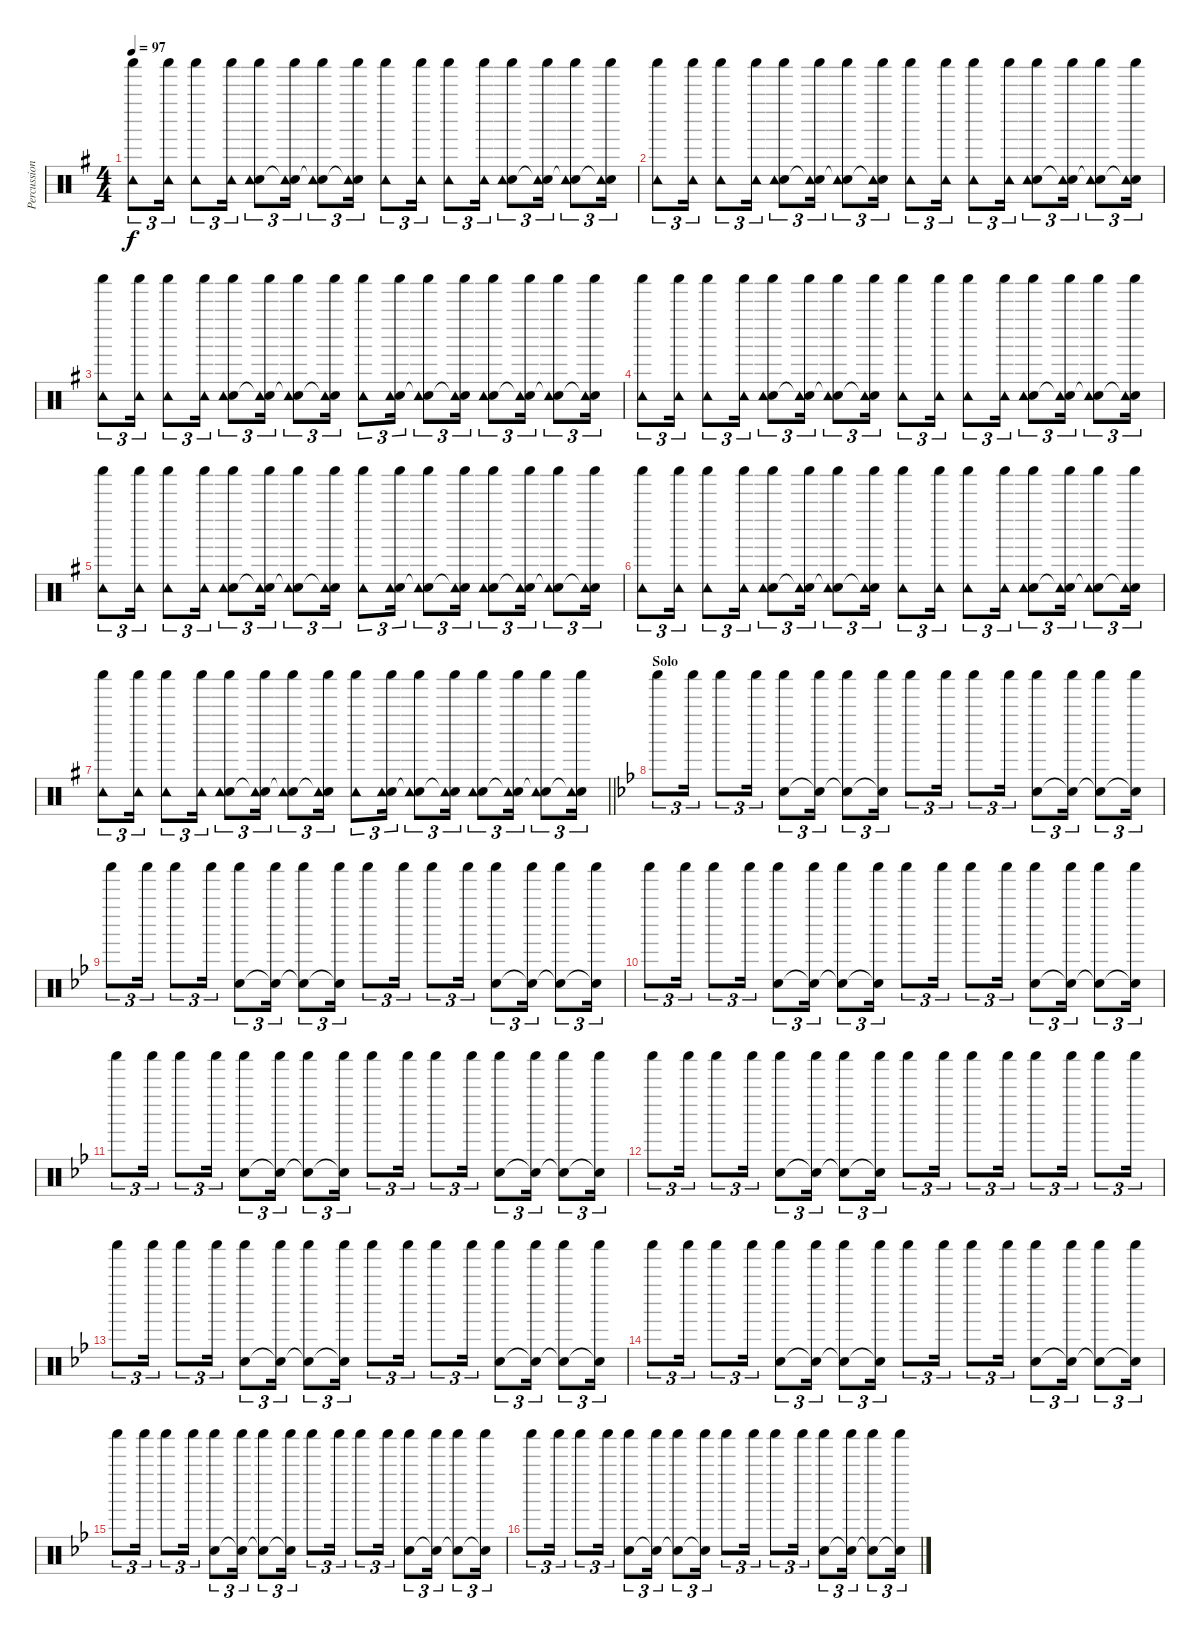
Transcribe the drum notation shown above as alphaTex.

\track ("Percussion" "Percussion") {instrument percussion}
\staff {score}
\articulation defaults
\ts (4 4)
\tempo 97
\clef neutral
\ks g
("Shaker (hit)" "Tambourine (hit)").8{tu (3 2) dy f} ("Shaker (hit)" "Tambourine (hit)").16{tu (3 2)} ("Shaker (hit)" "Tambourine (hit)").8{tu (3 2)} ("Shaker (hit)" "Tambourine (hit)").16{tu (3 2)} ("Hand Clap (hit)" "Shaker (hit)" "Tambourine (hit)").8{tu (3 2)} ("Snare (hit)"{t} "Shaker (hit)" "Tambourine (hit)").16{tu (3 2)} ("Snare (hit)"{t} "Shaker (hit)" "Tambourine (hit)").8{tu (3 2)} ("Snare (hit)"{t} "Shaker (hit)" "Tambourine (hit)").16{tu (3 2)} ("Shaker (hit)" "Tambourine (hit)").8{tu (3 2)} ("Shaker (hit)" "Tambourine (hit)").16{tu (3 2)} ("Shaker (hit)" "Tambourine (hit)").8{tu (3 2)} ("Shaker (hit)" "Tambourine (hit)").16{tu (3 2)} ("Hand Clap (hit)" "Shaker (hit)" "Tambourine (hit)").8{tu (3 2)} ("Snare (hit)"{t} "Shaker (hit)" "Tambourine (hit)").16{tu (3 2)} ("Snare (hit)"{t} "Shaker (hit)" "Tambourine (hit)").8{tu (3 2)} ("Snare (hit)"{t} "Shaker (hit)" "Tambourine (hit)").16{tu (3 2)} |
("Shaker (hit)" "Tambourine (hit)").8{tu (3 2)} ("Shaker (hit)" "Tambourine (hit)").16{tu (3 2)} ("Shaker (hit)" "Tambourine (hit)").8{tu (3 2)} ("Shaker (hit)" "Tambourine (hit)").16{tu (3 2)} ("Hand Clap (hit)" "Shaker (hit)" "Tambourine (hit)").8{tu (3 2)} ("Snare (hit)"{t} "Shaker (hit)" "Tambourine (hit)").16{tu (3 2)} ("Snare (hit)"{t} "Shaker (hit)" "Tambourine (hit)").8{tu (3 2)} ("Snare (hit)"{t} "Shaker (hit)" "Tambourine (hit)").16{tu (3 2)} ("Shaker (hit)" "Tambourine (hit)").8{tu (3 2)} ("Shaker (hit)" "Tambourine (hit)").16{tu (3 2)} ("Shaker (hit)" "Tambourine (hit)").8{tu (3 2)} ("Shaker (hit)" "Tambourine (hit)").16{tu (3 2)} ("Hand Clap (hit)" "Shaker (hit)" "Tambourine (hit)").8{tu (3 2)} ("Snare (hit)"{t} "Shaker (hit)" "Tambourine (hit)").16{tu (3 2)} ("Snare (hit)"{t} "Shaker (hit)" "Tambourine (hit)").8{tu (3 2)} ("Snare (hit)"{t} "Shaker (hit)" "Tambourine (hit)").16{tu (3 2)} |
("Shaker (hit)" "Tambourine (hit)").8{tu (3 2)} ("Shaker (hit)" "Tambourine (hit)").16{tu (3 2)} ("Shaker (hit)" "Tambourine (hit)").8{tu (3 2)} ("Shaker (hit)" "Tambourine (hit)").16{tu (3 2)} ("Hand Clap (hit)" "Shaker (hit)" "Tambourine (hit)").8{tu (3 2)} ("Snare (hit)"{t} "Shaker (hit)" "Tambourine (hit)").16{tu (3 2)} ("Snare (hit)"{t} "Shaker (hit)" "Tambourine (hit)").8{tu (3 2)} ("Snare (hit)"{t} "Shaker (hit)" "Tambourine (hit)").16{tu (3 2)} ("Shaker (hit)" "Tambourine (hit)").8{tu (3 2)} ("Hand Clap (hit)" "Shaker (hit)" "Tambourine (hit)").16{tu (3 2)} ("Snare (hit)"{t} "Shaker (hit)" "Tambourine (hit)").8{tu (3 2)} ("Snare (hit)"{t} "Shaker (hit)" "Tambourine (hit)").16{tu (3 2)} ("Hand Clap (hit)" "Shaker (hit)" "Tambourine (hit)").8{tu (3 2)} ("Snare (hit)"{t} "Shaker (hit)" "Tambourine (hit)").16{tu (3 2)} ("Snare (hit)"{t} "Shaker (hit)" "Tambourine (hit)").8{tu (3 2)} ("Snare (hit)"{t} "Shaker (hit)" "Tambourine (hit)").16{tu (3 2)} |
("Shaker (hit)" "Tambourine (hit)").8{tu (3 2)} ("Shaker (hit)" "Tambourine (hit)").16{tu (3 2)} ("Shaker (hit)" "Tambourine (hit)").8{tu (3 2)} ("Shaker (hit)" "Tambourine (hit)").16{tu (3 2)} ("Hand Clap (hit)" "Shaker (hit)" "Tambourine (hit)").8{tu (3 2)} ("Snare (hit)"{t} "Shaker (hit)" "Tambourine (hit)").16{tu (3 2)} ("Snare (hit)"{t} "Shaker (hit)" "Tambourine (hit)").8{tu (3 2)} ("Snare (hit)"{t} "Shaker (hit)" "Tambourine (hit)").16{tu (3 2)} ("Shaker (hit)" "Tambourine (hit)").8{tu (3 2)} ("Shaker (hit)" "Tambourine (hit)").16{tu (3 2)} ("Shaker (hit)" "Tambourine (hit)").8{tu (3 2)} ("Shaker (hit)" "Tambourine (hit)").16{tu (3 2)} ("Hand Clap (hit)" "Shaker (hit)" "Tambourine (hit)").8{tu (3 2)} ("Snare (hit)"{t} "Shaker (hit)" "Tambourine (hit)").16{tu (3 2)} ("Snare (hit)"{t} "Shaker (hit)" "Tambourine (hit)").8{tu (3 2)} ("Snare (hit)"{t} "Shaker (hit)" "Tambourine (hit)").16{tu (3 2)} |
("Shaker (hit)" "Tambourine (hit)").8{tu (3 2)} ("Shaker (hit)" "Tambourine (hit)").16{tu (3 2)} ("Shaker (hit)" "Tambourine (hit)").8{tu (3 2)} ("Shaker (hit)" "Tambourine (hit)").16{tu (3 2)} ("Hand Clap (hit)" "Shaker (hit)" "Tambourine (hit)").8{tu (3 2)} ("Snare (hit)"{t} "Shaker (hit)" "Tambourine (hit)").16{tu (3 2)} ("Snare (hit)"{t} "Shaker (hit)" "Tambourine (hit)").8{tu (3 2)} ("Snare (hit)"{t} "Shaker (hit)" "Tambourine (hit)").16{tu (3 2)} ("Shaker (hit)" "Tambourine (hit)").8{tu (3 2)} ("Hand Clap (hit)" "Shaker (hit)" "Tambourine (hit)").16{tu (3 2)} ("Snare (hit)"{t} "Shaker (hit)" "Tambourine (hit)").8{tu (3 2)} ("Snare (hit)"{t} "Shaker (hit)" "Tambourine (hit)").16{tu (3 2)} ("Hand Clap (hit)" "Shaker (hit)" "Tambourine (hit)").8{tu (3 2)} ("Snare (hit)"{t} "Shaker (hit)" "Tambourine (hit)").16{tu (3 2)} ("Snare (hit)"{t} "Shaker (hit)" "Tambourine (hit)").8{tu (3 2)} ("Snare (hit)"{t} "Shaker (hit)" "Tambourine (hit)").16{tu (3 2)} |
("Shaker (hit)" "Tambourine (hit)").8{tu (3 2)} ("Shaker (hit)" "Tambourine (hit)").16{tu (3 2)} ("Shaker (hit)" "Tambourine (hit)").8{tu (3 2)} ("Shaker (hit)" "Tambourine (hit)").16{tu (3 2)} ("Hand Clap (hit)" "Shaker (hit)" "Tambourine (hit)").8{tu (3 2)} ("Snare (hit)"{t} "Shaker (hit)" "Tambourine (hit)").16{tu (3 2)} ("Snare (hit)"{t} "Shaker (hit)" "Tambourine (hit)").8{tu (3 2)} ("Snare (hit)"{t} "Shaker (hit)" "Tambourine (hit)").16{tu (3 2)} ("Shaker (hit)" "Tambourine (hit)").8{tu (3 2)} ("Shaker (hit)" "Tambourine (hit)").16{tu (3 2)} ("Shaker (hit)" "Tambourine (hit)").8{tu (3 2)} ("Shaker (hit)" "Tambourine (hit)").16{tu (3 2)} ("Hand Clap (hit)" "Shaker (hit)" "Tambourine (hit)").8{tu (3 2)} ("Snare (hit)"{t} "Shaker (hit)" "Tambourine (hit)").16{tu (3 2)} ("Snare (hit)"{t} "Shaker (hit)" "Tambourine (hit)").8{tu (3 2)} ("Snare (hit)"{t} "Shaker (hit)" "Tambourine (hit)").16{tu (3 2)} |
\barLineRight lightlight
("Shaker (hit)" "Tambourine (hit)").8{tu (3 2)} ("Shaker (hit)" "Tambourine (hit)").16{tu (3 2)} ("Shaker (hit)" "Tambourine (hit)").8{tu (3 2)} ("Shaker (hit)" "Tambourine (hit)").16{tu (3 2)} ("Hand Clap (hit)" "Shaker (hit)" "Tambourine (hit)").8{tu (3 2)} ("Snare (hit)"{t} "Shaker (hit)" "Tambourine (hit)").16{tu (3 2)} ("Snare (hit)"{t} "Shaker (hit)" "Tambourine (hit)").8{tu (3 2)} ("Snare (hit)"{t} "Shaker (hit)" "Tambourine (hit)").16{tu (3 2)} ("Shaker (hit)" "Tambourine (hit)").8{tu (3 2)} ("Hand Clap (hit)" "Shaker (hit)" "Tambourine (hit)").16{tu (3 2)} ("Snare (hit)"{t} "Shaker (hit)" "Tambourine (hit)").8{tu (3 2)} ("Snare (hit)"{t} "Shaker (hit)" "Tambourine (hit)").16{tu (3 2)} ("Hand Clap (hit)" "Shaker (hit)" "Tambourine (hit)").8{tu (3 2)} ("Snare (hit)"{t} "Shaker (hit)" "Tambourine (hit)").16{tu (3 2)} ("Snare (hit)"{t} "Shaker (hit)" "Tambourine (hit)").8{tu (3 2)} ("Snare (hit)"{t} "Shaker (hit)" "Tambourine (hit)").16{tu (3 2)} |
\section ("" "Solo")
\ks bb "Shaker (hit)".8{tu (3 2)} "Shaker (hit)".16{tu (3 2)} "Shaker (hit)".8{tu (3 2)} "Shaker (hit)".16{tu (3 2)}
("Hand Clap (hit)" "Shaker (hit)").8{tu (3 2)} ("Snare (hit)"{t} "Shaker (hit)").16{tu (3 2)} ("Snare (hit)"{t} "Shaker (hit)").8{tu (3 2)} ("Snare (hit)"{t} "Shaker (hit)").16{tu (3 2)} "Shaker (hit)".8{tu (3 2)} "Shaker (hit)".16{tu (3 2)} "Shaker (hit)".8{tu (3 2)} "Shaker (hit)".16{tu (3 2)} ("Hand Clap (hit)" "Shaker (hit)").8{tu (3 2)} ("Snare (hit)"{t} "Shaker (hit)").16{tu (3 2)} ("Snare (hit)"{t} "Shaker (hit)").8{tu (3 2)} ("Snare (hit)"{t} "Shaker (hit)").16{tu (3 2)} |
"Shaker (hit)".8{tu (3 2)} "Shaker (hit)".16{tu (3 2)} "Shaker (hit)".8{tu (3 2)} "Shaker (hit)".16{tu (3 2)} ("Hand Clap (hit)" "Shaker (hit)").8{tu (3 2)} ("Snare (hit)"{t} "Shaker (hit)").16{tu (3 2)} ("Snare (hit)"{t} "Shaker (hit)").8{tu (3 2)} ("Snare (hit)"{t} "Shaker (hit)").16{tu (3 2)} "Shaker (hit)".8{tu (3 2)} "Shaker (hit)".16{tu (3 2)} "Shaker (hit)".8{tu (3 2)} "Shaker (hit)".16{tu (3 2)} ("Hand Clap (hit)" "Shaker (hit)").8{tu (3 2)} ("Snare (hit)"{t} "Shaker (hit)").16{tu (3 2)} ("Snare (hit)"{t} "Shaker (hit)").8{tu (3 2)} ("Snare (hit)"{t} "Shaker (hit)").16{tu (3 2)} |
"Shaker (hit)".8{tu (3 2)} "Shaker (hit)".16{tu (3 2)} "Shaker (hit)".8{tu (3 2)} "Shaker (hit)".16{tu (3 2)} ("Hand Clap (hit)" "Shaker (hit)").8{tu (3 2)} ("Snare (hit)"{t} "Shaker (hit)").16{tu (3 2)} ("Snare (hit)"{t} "Shaker (hit)").8{tu (3 2)} ("Snare (hit)"{t} "Shaker (hit)").16{tu (3 2)} "Shaker (hit)".8{tu (3 2)} "Shaker (hit)".16{tu (3 2)} "Shaker (hit)".8{tu (3 2)} "Shaker (hit)".16{tu (3 2)} ("Hand Clap (hit)" "Shaker (hit)").8{tu (3 2)} ("Snare (hit)"{t} "Shaker (hit)").16{tu (3 2)} ("Snare (hit)"{t} "Shaker (hit)").8{tu (3 2)} ("Snare (hit)"{t} "Shaker (hit)").16{tu (3 2)} |
"Shaker (hit)".8{tu (3 2)} "Shaker (hit)".16{tu (3 2)} "Shaker (hit)".8{tu (3 2)} "Shaker (hit)".16{tu (3 2)} ("Hand Clap (hit)" "Shaker (hit)").8{tu (3 2)} ("Snare (hit)"{t} "Shaker (hit)").16{tu (3 2)} ("Snare (hit)"{t} "Shaker (hit)").8{tu (3 2)} ("Snare (hit)"{t} "Shaker (hit)").16{tu (3 2)} "Shaker (hit)".8{tu (3 2)} "Shaker (hit)".16{tu (3 2)} "Shaker (hit)".8{tu (3 2)} "Shaker (hit)".16{tu (3 2)} ("Hand Clap (hit)" "Shaker (hit)").8{tu (3 2)} ("Snare (hit)"{t} "Shaker (hit)").16{tu (3 2)} ("Snare (hit)"{t} "Shaker (hit)").8{tu (3 2)} ("Snare (hit)"{t} "Shaker (hit)").16{tu (3 2)} |
"Shaker (hit)".8{tu (3 2)} "Shaker (hit)".16{tu (3 2)} "Shaker (hit)".8{tu (3 2)} "Shaker (hit)".16{tu (3 2)} ("Hand Clap (hit)" "Shaker (hit)").8{tu (3 2)} ("Snare (hit)"{t} "Shaker (hit)").16{tu (3 2)} ("Snare (hit)"{t} "Shaker (hit)").8{tu (3 2)} ("Snare (hit)"{t} "Shaker (hit)").16{tu (3 2)} "Shaker (hit)".8{tu (3 2)} "Shaker (hit)".16{tu (3 2)} "Shaker (hit)".8{tu (3 2)} "Shaker (hit)".16{tu (3 2)} "Shaker (hit)".8{tu (3 2)} "Shaker (hit)".16{tu (3 2)} "Shaker (hit)".8{tu (3 2)} "Shaker (hit)".16{tu (3 2)} |
"Shaker (hit)".8{tu (3 2)} "Shaker (hit)".16{tu (3 2)} "Shaker (hit)".8{tu (3 2)} "Shaker (hit)".16{tu (3 2)} ("Hand Clap (hit)" "Shaker (hit)").8{tu (3 2)} ("Snare (hit)"{t} "Shaker (hit)").16{tu (3 2)} ("Snare (hit)"{t} "Shaker (hit)").8{tu (3 2)} ("Snare (hit)"{t} "Shaker (hit)").16{tu (3 2)} "Shaker (hit)".8{tu (3 2)} "Shaker (hit)".16{tu (3 2)} "Shaker (hit)".8{tu (3 2)} "Shaker (hit)".16{tu (3 2)} ("Hand Clap (hit)" "Shaker (hit)").8{tu (3 2)} ("Snare (hit)"{t} "Shaker (hit)").16{tu (3 2)} ("Snare (hit)"{t} "Shaker (hit)").8{tu (3 2)} ("Snare (hit)"{t} "Shaker (hit)").16{tu (3 2)} |
"Shaker (hit)".8{tu (3 2)} "Shaker (hit)".16{tu (3 2)} "Shaker (hit)".8{tu (3 2)} "Shaker (hit)".16{tu (3 2)} ("Hand Clap (hit)" "Shaker (hit)").8{tu (3 2)} ("Snare (hit)"{t} "Shaker (hit)").16{tu (3 2)} ("Snare (hit)"{t} "Shaker (hit)").8{tu (3 2)} ("Snare (hit)"{t} "Shaker (hit)").16{tu (3 2)} "Shaker (hit)".8{tu (3 2)} "Shaker (hit)".16{tu (3 2)} "Shaker (hit)".8{tu (3 2)} "Shaker (hit)".16{tu (3 2)} ("Hand Clap (hit)" "Shaker (hit)").8{tu (3 2)} ("Snare (hit)"{t} "Shaker (hit)").16{tu (3 2)} ("Snare (hit)"{t} "Shaker (hit)").8{tu (3 2)} ("Snare (hit)"{t} "Shaker (hit)").16{tu (3 2)} |
"Shaker (hit)".8{tu (3 2)} "Shaker (hit)".16{tu (3 2)} "Shaker (hit)".8{tu (3 2)} "Shaker (hit)".16{tu (3 2)} ("Hand Clap (hit)" "Shaker (hit)").8{tu (3 2)} ("Snare (hit)"{t} "Shaker (hit)").16{tu (3 2)} ("Snare (hit)"{t} "Shaker (hit)").8{tu (3 2)} ("Snare (hit)"{t} "Shaker (hit)").16{tu (3 2)} "Shaker (hit)".8{tu (3 2)} "Shaker (hit)".16{tu (3 2)} "Shaker (hit)".8{tu (3 2)} "Shaker (hit)".16{tu (3 2)} ("Hand Clap (hit)" "Shaker (hit)").8{tu (3 2)} ("Snare (hit)"{t} "Shaker (hit)").16{tu (3 2)} ("Snare (hit)"{t} "Shaker (hit)").8{tu (3 2)} ("Snare (hit)"{t} "Shaker (hit)").16{tu (3 2)} |
"Shaker (hit)".8{tu (3 2)} "Shaker (hit)".16{tu (3 2)} "Shaker (hit)".8{tu (3 2)} "Shaker (hit)".16{tu (3 2)} ("Hand Clap (hit)" "Shaker (hit)").8{tu (3 2)} ("Snare (hit)"{t} "Shaker (hit)").16{tu (3 2)} ("Snare (hit)"{t} "Shaker (hit)").8{tu (3 2)} ("Snare (hit)"{t} "Shaker (hit)").16{tu (3 2)} "Shaker (hit)".8{tu (3 2)} "Shaker (hit)".16{tu (3 2)} "Shaker (hit)".8{tu (3 2)} "Shaker (hit)".16{tu (3 2)} ("Hand Clap (hit)" "Shaker (hit)").8{tu (3 2)} ("Snare (hit)"{t} "Shaker (hit)").16{tu (3 2)} ("Snare (hit)"{t} "Shaker (hit)").8{tu (3 2)} ("Snare (hit)"{t} "Shaker (hit)").16{tu (3 2)}
